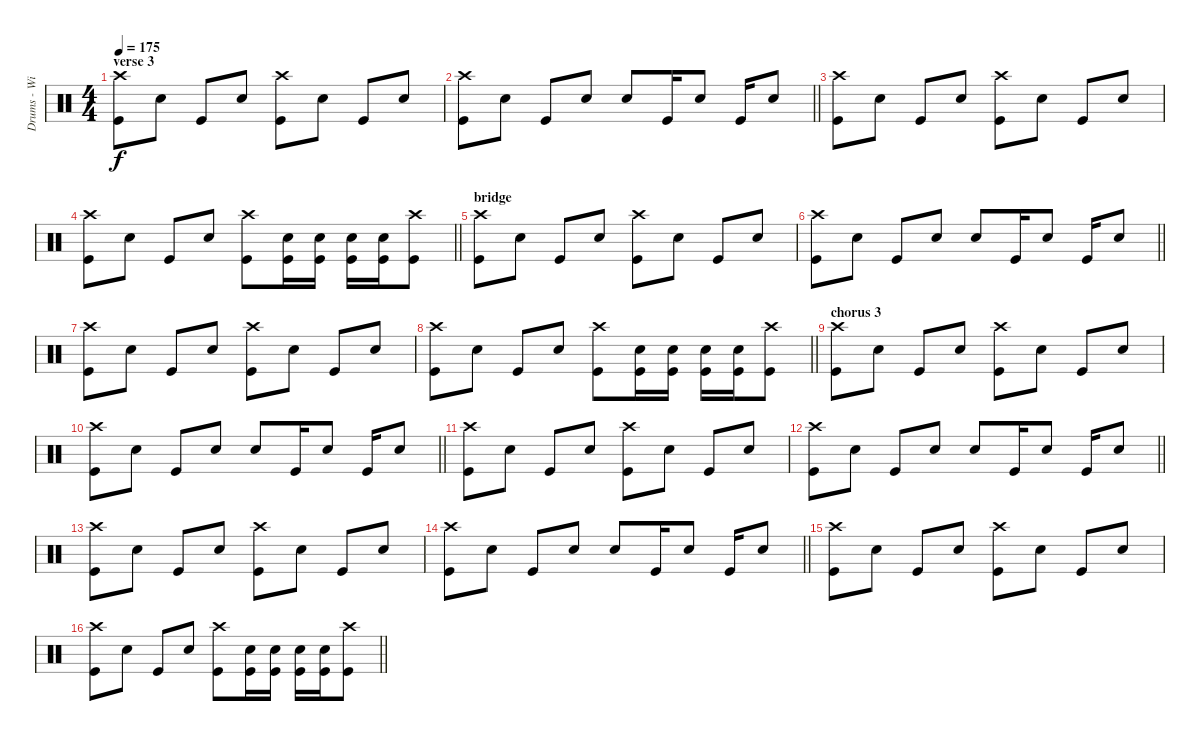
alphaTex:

\track ("Drums - Willie Buchan" "Drums - Wi") {instrument percussion}
\staff {score}
\articulation defaults
\ts (4 4)
\section ("" "verse 3")
\tempo 175
\clef neutral
\ks c
("Crash high (hit)" "Kick (hit)").8{dy f} "Snare (hit) 2".8 "Kick (hit)".8 "Snare (hit) 2".8 ("Crash high (hit)" "Kick (hit)").8 "Snare (hit) 2".8 "Kick (hit)".8 "Snare (hit) 2".8 |
\barLineRight lightlight
("Crash high (hit)" "Kick (hit)").8 "Snare (hit) 2".8 "Kick (hit)".8 "Snare (hit) 2".8 "Snare (hit) 2".8 "Kick (hit)".16 "Snare (hit) 2".8 "Kick (hit)".16 "Snare (hit) 2".8 |
("Crash high (hit)" "Kick (hit)").8 "Snare (hit) 2".8 "Kick (hit)".8 "Snare (hit) 2".8 ("Crash high (hit)" "Kick (hit)").8 "Snare (hit) 2".8 "Kick (hit)".8 "Snare (hit) 2".8 |
\barLineRight lightlight
("Crash high (hit)" "Kick (hit)").8 "Snare (hit) 2".8 "Kick (hit)".8 "Snare (hit) 2".8 ("Crash high (hit)" "Kick (hit)").8 ("Snare (hit) 2" "Kick (hit)").16 ("Snare (hit) 2" "Kick (hit)").16 ("Snare (hit) 2" "Kick (hit)").16 ("Snare (hit) 2" "Kick (hit)").16 ("Crash high (hit)" "Kick (hit)").8 |
\section ("" "bridge")
("Crash high (hit)" "Kick (hit)").8 "Snare (hit) 2".8 "Kick (hit)".8 "Snare (hit) 2".8 ("Crash high (hit)" "Kick (hit)").8 "Snare (hit) 2".8 "Kick (hit)".8 "Snare (hit) 2".8 |
\barLineRight lightlight
("Crash high (hit)" "Kick (hit)").8 "Snare (hit) 2".8 "Kick (hit)".8 "Snare (hit) 2".8 "Snare (hit) 2".8 "Kick (hit)".16 "Snare (hit) 2".8 "Kick (hit)".16 "Snare (hit) 2".8 |
("Crash high (hit)" "Kick (hit)").8 "Snare (hit) 2".8 "Kick (hit)".8 "Snare (hit) 2".8 ("Crash high (hit)" "Kick (hit)").8 "Snare (hit) 2".8 "Kick (hit)".8 "Snare (hit) 2".8 |
\barLineRight lightlight
("Crash high (hit)" "Kick (hit)").8 "Snare (hit) 2".8 "Kick (hit)".8 "Snare (hit) 2".8 ("Crash high (hit)" "Kick (hit)").8 ("Snare (hit) 2" "Kick (hit)").16 ("Snare (hit) 2" "Kick (hit)").16 ("Snare (hit) 2" "Kick (hit)").16 ("Snare (hit) 2" "Kick (hit)").16 ("Crash high (hit)" "Kick (hit)").8 |
\section ("" "chorus 3")
("Crash high (hit)" "Kick (hit)").8 "Snare (hit) 2".8 "Kick (hit)".8 "Snare (hit) 2".8 ("Crash high (hit)" "Kick (hit)").8 "Snare (hit) 2".8 "Kick (hit)".8 "Snare (hit) 2".8 |
\barLineRight lightlight
("Crash high (hit)" "Kick (hit)").8 "Snare (hit) 2".8 "Kick (hit)".8 "Snare (hit) 2".8 "Snare (hit) 2".8 "Kick (hit)".16 "Snare (hit) 2".8 "Kick (hit)".16 "Snare (hit) 2".8 |
("Crash high (hit)" "Kick (hit)").8 "Snare (hit) 2".8 "Kick (hit)".8 "Snare (hit) 2".8 ("Crash high (hit)" "Kick (hit)").8 "Snare (hit) 2".8 "Kick (hit)".8 "Snare (hit) 2".8 |
\barLineRight lightlight
("Crash high (hit)" "Kick (hit)").8 "Snare (hit) 2".8 "Kick (hit)".8 "Snare (hit) 2".8 "Snare (hit) 2".8 "Kick (hit)".16 "Snare (hit) 2".8 "Kick (hit)".16 "Snare (hit) 2".8 |
("Crash high (hit)" "Kick (hit)").8 "Snare (hit) 2".8 "Kick (hit)".8 "Snare (hit) 2".8 ("Crash high (hit)" "Kick (hit)").8 "Snare (hit) 2".8 "Kick (hit)".8 "Snare (hit) 2".8 |
\barLineRight lightlight
("Crash high (hit)" "Kick (hit)").8 "Snare (hit) 2".8 "Kick (hit)".8 "Snare (hit) 2".8 "Snare (hit) 2".8 "Kick (hit)".16 "Snare (hit) 2".8 "Kick (hit)".16 "Snare (hit) 2".8 |
("Crash high (hit)" "Kick (hit)").8 "Snare (hit) 2".8 "Kick (hit)".8 "Snare (hit) 2".8 ("Crash high (hit)" "Kick (hit)").8 "Snare (hit) 2".8 "Kick (hit)".8 "Snare (hit) 2".8 |
\barLineRight lightlight
("Crash high (hit)" "Kick (hit)").8 "Snare (hit) 2".8 "Kick (hit)".8 "Snare (hit) 2".8 ("Crash high (hit)" "Kick (hit)").8 ("Snare (hit) 2" "Kick (hit)").16 ("Snare (hit) 2" "Kick (hit)").16 ("Snare (hit) 2" "Kick (hit)").16 ("Snare (hit) 2" "Kick (hit)").16 ("Crash high (hit)" "Kick (hit)").8
